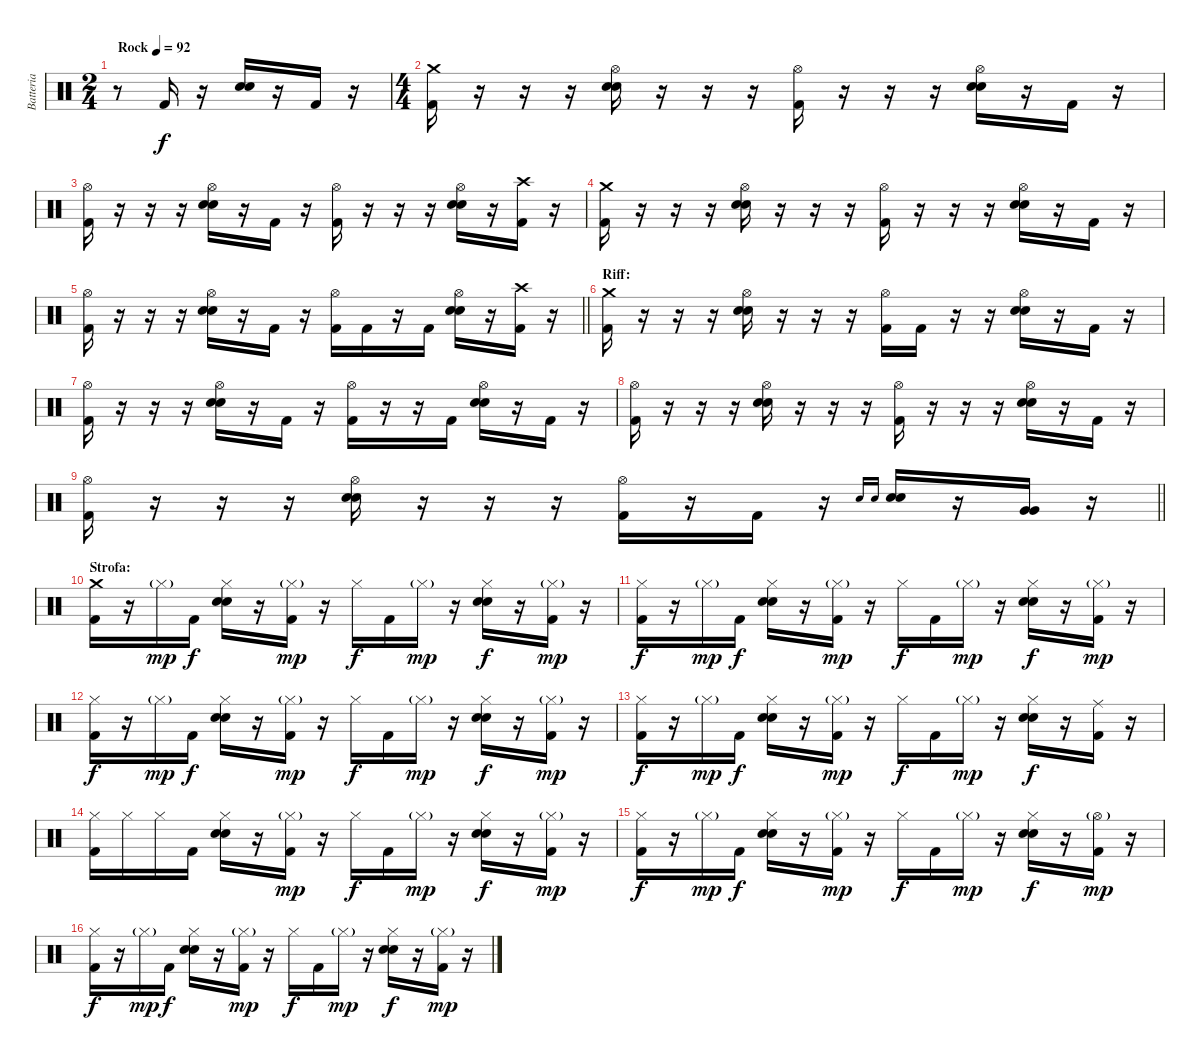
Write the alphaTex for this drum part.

\track ("Batteria" "Batteria") {instrument percussion}
\staff {score}
\articulation defaults
\ts (2 4)
\tempo (92 "Rock")
\clef neutral
\ks c
r.8{dy f} "Kick (hit) 2".16 r.16 ("Snare (hit) 2" "Snare (hit) 2").16 r.16 "Kick (hit) 2".16 r.16 |
\ts (4 4)
("Kick (hit) 2" "Crash medium (hit)").16 r.16 r.16 r.16 ("Snare (hit) 2" "Snare (hit) 2" "Hi-Hat (open)").16 r.16 r.16 r.16 ("Kick (hit) 2" "Hi-Hat (open)").16 r.16 r.16 r.16 ("Snare (hit) 2" "Snare (hit) 2" "Hi-Hat (open)").16 r.16 "Kick (hit) 2".16 r.16 |
("Kick (hit) 2" "Hi-Hat (open)").16 r.16 r.16 r.16 ("Snare (hit) 2" "Snare (hit) 2" "Hi-Hat (open)").16 r.16 "Kick (hit) 2".16 r.16 ("Kick (hit) 2" "Hi-Hat (open)").16 r.16 r.16 r.16 ("Snare (hit) 2" "Snare (hit) 2" "Hi-Hat (open)").16 r.16 ("Kick (hit) 2" "Crash high (hit)").16 r.16 |
("Kick (hit) 2" "Crash medium (hit)").16 r.16 r.16 r.16 ("Snare (hit) 2" "Snare (hit) 2" "Hi-Hat (open)").16 r.16 r.16 r.16 ("Kick (hit) 2" "Hi-Hat (open)").16 r.16 r.16 r.16 ("Snare (hit) 2" "Snare (hit) 2" "Hi-Hat (open)").16 r.16 "Kick (hit) 2".16 r.16 |
\barLineRight lightlight
("Kick (hit) 2" "Hi-Hat (open)").16 r.16 r.16 r.16 ("Snare (hit) 2" "Snare (hit) 2" "Hi-Hat (open)").16 r.16 "Kick (hit) 2".16 r.16 ("Kick (hit) 2" "Hi-Hat (open)").16 "Kick (hit) 2".16 r.16 "Kick (hit) 2".16 ("Snare (hit) 2" "Snare (hit) 2" "Hi-Hat (open)").16 r.16 ("Kick (hit) 2" "Crash high (hit)").16 r.16 |
\section ("" "Riff:")
("Kick (hit) 2" "Crash medium (hit)").16 r.16 r.16 r.16 ("Snare (hit) 2" "Snare (hit) 2" "Hi-Hat (open)").16 r.16 r.16 r.16 ("Kick (hit) 2" "Hi-Hat (open)").16 "Kick (hit) 2".16 r.16 r.16 ("Snare (hit) 2" "Snare (hit) 2" "Hi-Hat (open)").16 r.16 "Kick (hit) 2".16 r.16 |
("Kick (hit) 2" "Hi-Hat (open)").16 r.16 r.16 r.16 ("Snare (hit) 2" "Snare (hit) 2" "Hi-Hat (open)").16 r.16 "Kick (hit) 2".16 r.16 ("Kick (hit) 2" "Hi-Hat (open)").16 r.16 r.16 "Kick (hit) 2".16 ("Snare (hit) 2" "Snare (hit) 2" "Hi-Hat (open)").16 r.16 "Kick (hit) 2".16 r.16 |
("Kick (hit) 2" "Hi-Hat (open)").16 r.16 r.16 r.16 ("Snare (hit) 2" "Snare (hit) 2" "Hi-Hat (open)").16 r.16 r.16 r.16 ("Kick (hit) 2" "Hi-Hat (open)").16 r.16 r.16 r.16 ("Snare (hit) 2" "Snare (hit) 2" "Hi-Hat (open)").16 r.16 "Kick (hit) 2".16 r.16 |
\barLineRight lightlight
("Kick (hit) 2" "Hi-Hat (open)").16 r.16 r.16 r.16 ("Snare (hit) 2" "Snare (hit) 2" "Hi-Hat (open)").16 r.16 r.16 r.16 ("Kick (hit) 2" "Hi-Hat (open)").16 r.16 "Kick (hit) 2".16 r.16 "Snare (hit) 2".16{gr onbeat} "Snare (hit) 2".16{gr onbeat} ("Snare (hit) 2" "Snare (hit) 2").16 r.16 ("Very Low Tom (hit)" "Very Low Tom (hit)").16 r.16 |
\section ("" "Strofa:")
("Kick (hit) 2" "Crash medium (hit)").16 r.16 "Hi-Hat (closed)"{g}.16{dy mp} "Kick (hit) 2".16{dy f} ("Snare (hit) 2" "Snare (hit) 2" "Hi-Hat (closed)").16 r.16 ("Kick (hit) 2" "Hi-Hat (closed)"{g}).16{dy mp} r.16 "Hi-Hat (closed)".16{dy f} "Kick (hit) 2".16 "Hi-Hat (closed)"{g}.16{dy mp} r.16 ("Snare (hit) 2" "Snare (hit) 2" "Hi-Hat (closed)").16{dy f} r.16 ("Kick (hit) 2" "Hi-Hat (closed)"{g}).16{dy mp} r.16 |
("Kick (hit) 2" "Hi-Hat (closed)").16{dy f} r.16 "Hi-Hat (closed)"{g}.16{dy mp} "Kick (hit) 2".16{dy f} ("Snare (hit) 2" "Snare (hit) 2" "Hi-Hat (closed)").16 r.16 ("Kick (hit) 2" "Hi-Hat (closed)"{g}).16{dy mp} r.16 "Hi-Hat (closed)".16{dy f} "Kick (hit) 2".16 "Hi-Hat (closed)"{g}.16{dy mp} r.16 ("Snare (hit) 2" "Snare (hit) 2" "Hi-Hat (closed)").16{dy f} r.16 ("Kick (hit) 2" "Hi-Hat (closed)"{g}).16{dy mp} r.16 |
("Kick (hit) 2" "Hi-Hat (closed)").16{dy f} r.16 "Hi-Hat (closed)"{g}.16{dy mp} "Kick (hit) 2".16{dy f} ("Snare (hit) 2" "Snare (hit) 2" "Hi-Hat (closed)").16 r.16 ("Kick (hit) 2" "Hi-Hat (closed)"{g}).16{dy mp} r.16 "Hi-Hat (closed)".16{dy f} "Kick (hit) 2".16 "Hi-Hat (closed)"{g}.16{dy mp} r.16 ("Snare (hit) 2" "Snare (hit) 2" "Hi-Hat (closed)").16{dy f} r.16 ("Kick (hit) 2" "Hi-Hat (closed)"{g}).16{dy mp} r.16 |
("Kick (hit) 2" "Hi-Hat (closed)").16{dy f} r.16 "Hi-Hat (closed)"{g}.16{dy mp} "Kick (hit) 2".16{dy f} ("Snare (hit) 2" "Snare (hit) 2" "Hi-Hat (closed)").16 r.16 ("Kick (hit) 2" "Hi-Hat (closed)"{g}).16{dy mp} r.16 "Hi-Hat (closed)".16{dy f} "Kick (hit) 2".16 "Hi-Hat (closed)"{g}.16{dy mp} r.16 ("Snare (hit) 2" "Snare (hit) 2" "Hi-Hat (closed)").16{dy f} r.16 ("Kick (hit) 2" "Ride (middle)").16 r.16 |
("Kick (hit) 2" "Hi-Hat (closed)").16 "Hi-Hat (closed)".16 "Hi-Hat (closed)".16 "Kick (hit) 2".16 ("Snare (hit) 2" "Snare (hit) 2" "Hi-Hat (closed)").16 r.16 ("Kick (hit) 2" "Hi-Hat (closed)"{g}).16{dy mp} r.16 "Hi-Hat (closed)".16{dy f} "Kick (hit) 2".16 "Hi-Hat (closed)"{g}.16{dy mp} r.16 ("Snare (hit) 2" "Snare (hit) 2" "Hi-Hat (closed)").16{dy f} r.16 ("Kick (hit) 2" "Hi-Hat (closed)"{g}).16{dy mp} r.16 |
("Kick (hit) 2" "Hi-Hat (closed)").16{dy f} r.16 "Hi-Hat (closed)"{g}.16{dy mp} "Kick (hit) 2".16{dy f} ("Snare (hit) 2" "Snare (hit) 2" "Hi-Hat (closed)").16 r.16 ("Kick (hit) 2" "Hi-Hat (closed)"{g}).16{dy mp} r.16 "Hi-Hat (closed)".16{dy f} "Kick (hit) 2".16 "Hi-Hat (closed)"{g}.16{dy mp} r.16 ("Snare (hit) 2" "Snare (hit) 2" "Hi-Hat (closed)").16{dy f} r.16 ("Kick (hit) 2" "Hi-Hat (open)"{g}).16{dy mp} r.16 |
("Kick (hit) 2" "Hi-Hat (closed)").16{dy f} r.16 "Hi-Hat (closed)"{g}.16{dy mp} "Kick (hit) 2".16{dy f} ("Snare (hit) 2" "Snare (hit) 2" "Hi-Hat (closed)").16 r.16 ("Kick (hit) 2" "Hi-Hat (closed)"{g}).16{dy mp} r.16 "Hi-Hat (closed)".16{dy f} "Kick (hit) 2".16 "Hi-Hat (closed)"{g}.16{dy mp} r.16 ("Snare (hit) 2" "Snare (hit) 2" "Hi-Hat (closed)").16{dy f} r.16 ("Kick (hit) 2" "Hi-Hat (closed)"{g}).16{dy mp} r.16
